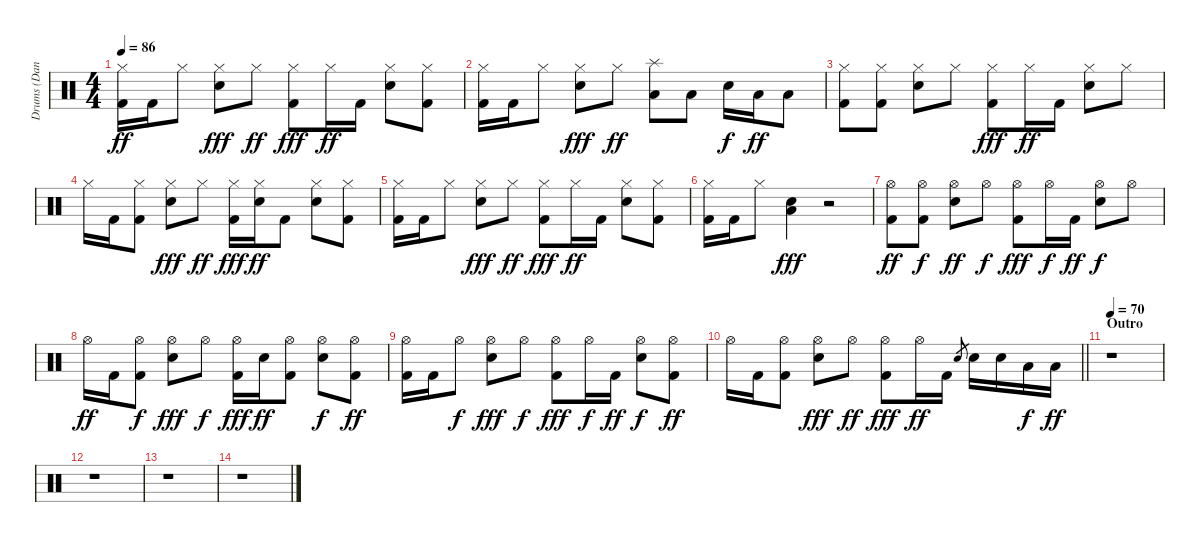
\track ("Drums (Dan)" "Drums (Dan") {instrument percussion}
\staff {score}
\articulation defaults
\ts (4 4)
\tempo 86
\clef neutral
\ks c
("Hi-Hat (closed)" "Kick (hit) 2").16{dy ff} "Kick (hit) 2".16 "Hi-Hat (closed)".8 ("Hi-Hat (closed)" "Electric Snare (hit)").8{dy fff} "Hi-Hat (closed)".8{dy ff} ("Hi-Hat (closed)" "Kick (hit) 2").8{dy fff} "Hi-Hat (closed)".16{dy ff} "Kick (hit) 2".16 ("Hi-Hat (closed)" "Electric Snare (hit)").8 ("Hi-Hat (closed)" "Kick (hit) 2").8 |
("Hi-Hat (closed)" "Kick (hit) 2").16 "Kick (hit) 2".16 "Hi-Hat (closed)".8 ("Hi-Hat (closed)" "Electric Snare (hit)").8{dy fff} "Hi-Hat (closed)".8{dy ff} ("Splash (hit)" "Low Tom (hit)").8 "Low Floor Tom (hit)".8 "Electric Snare (hit)".16{dy f} "Low Tom (hit)".16{dy ff} "Low Floor Tom (hit)".8 |
("Hi-Hat (closed)" "Kick (hit) 2").8 ("Hi-Hat (closed)" "Kick (hit) 2").8 ("Hi-Hat (closed)" "Electric Snare (hit)").8 "Hi-Hat (closed)".8 ("Hi-Hat (closed)" "Kick (hit) 2").8{dy fff} "Hi-Hat (closed)".16{dy ff} "Kick (hit) 2".16 ("Hi-Hat (closed)" "Electric Snare (hit)").8 "Hi-Hat (closed)".8 |
"Hi-Hat (closed)".16 "Kick (hit) 2".16 ("Hi-Hat (closed)" "Kick (hit) 2").8 ("Hi-Hat (closed)" "Electric Snare (hit)").8{dy fff} "Hi-Hat (closed)".8{dy ff} ("Hi-Hat (closed)" "Kick (hit) 2").16{dy fff} ("Hi-Hat (closed)" "Electric Snare (hit)").16{dy ff} "Kick (hit) 2".8 ("Hi-Hat (closed)" "Electric Snare (hit)").8 ("Hi-Hat (closed)" "Kick (hit) 2").8 |
("Hi-Hat (closed)" "Kick (hit) 2").16 "Kick (hit) 2".16 "Hi-Hat (closed)".8 ("Hi-Hat (closed)" "Electric Snare (hit)").8{dy fff} "Hi-Hat (closed)".8{dy ff} ("Hi-Hat (closed)" "Kick (hit) 2").8{dy fff} "Hi-Hat (closed)".16{dy ff} "Kick (hit) 2".16 ("Hi-Hat (closed)" "Electric Snare (hit)").8 ("Hi-Hat (closed)" "Kick (hit) 2").8 |
("Hi-Hat (closed)" "Kick (hit) 2").16 "Kick (hit) 2".16 "Hi-Hat (closed)".8 ("Electric Snare (hit)" "Low Floor Tom (hit)").4{dy fff} r.2 |
("Hi-Hat (open)" "Kick (hit) 2").8{dy ff} ("Hi-Hat (open)" "Kick (hit) 2").8{dy f} ("Hi-Hat (open)" "Electric Snare (hit)").8{dy ff} "Hi-Hat (open)".8{dy f} ("Hi-Hat (open)" "Kick (hit) 2").8{dy fff} "Hi-Hat (open)".16{dy f} "Kick (hit) 2".16{dy ff} ("Hi-Hat (open)" "Electric Snare (hit)").8{dy f} "Hi-Hat (open)".8 |
"Hi-Hat (open)".16{dy ff} "Kick (hit) 2".16 ("Hi-Hat (open)" "Kick (hit) 2").8{dy f} ("Hi-Hat (open)" "Electric Snare (hit)").8{dy fff} "Hi-Hat (open)".8{dy f} ("Hi-Hat (open)" "Kick (hit) 2").16{dy fff} "Electric Snare (hit)".16{dy ff} ("Hi-Hat (open)" "Kick (hit) 2").8 ("Hi-Hat (open)" "Electric Snare (hit)").8{dy f} ("Hi-Hat (open)" "Kick (hit) 2").8{dy ff} |
("Hi-Hat (open)" "Kick (hit) 2").16 "Kick (hit) 2".16 "Hi-Hat (open)".8{dy f} ("Hi-Hat (open)" "Electric Snare (hit)").8{dy fff} "Hi-Hat (open)".8{dy f} ("Hi-Hat (open)" "Kick (hit) 2").8{dy fff} "Hi-Hat (open)".16{dy f} "Kick (hit) 2".16{dy ff} ("Hi-Hat (open)" "Electric Snare (hit)").8{dy f} ("Hi-Hat (open)" "Kick (hit) 2").8{dy ff} |
\barLineRight lightlight "Hi-Hat (open)".16 "Kick (hit) 2".16
("Hi-Hat (open)" "Kick (hit) 2").8 ("Hi-Hat (open)" "Electric Snare (hit)").8{dy fff} "Hi-Hat (open)".8{dy ff} ("Hi-Hat (open)" "Kick (hit) 2").8{dy fff} "Hi-Hat (open)".16{dy ff} "Kick (hit) 2".16 "Electric Snare (hit)".8{gr} "Electric Snare (hit)".16 "Electric Snare (hit)".16 "Low Tom (hit)".16{dy f} "Low Floor Tom (hit)".16{dy ff} |
\section ("" "Outro")
\tempo 70
r.1 |
r.1 |
r.1 |
r.1
